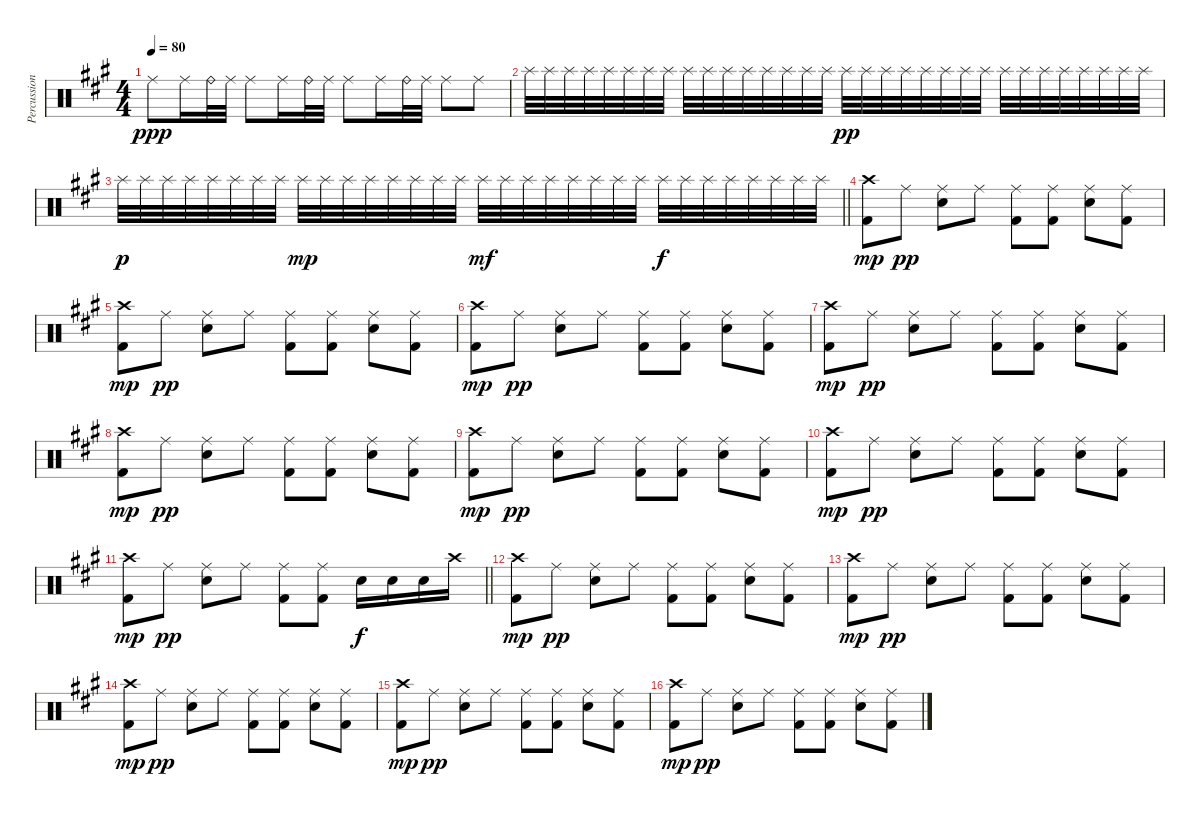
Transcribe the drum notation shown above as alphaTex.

\track ("Percussion" "Percussion") {instrument percussion}
\staff {score}
\articulation defaults
\ts (4 4)
\tempo 80
\clef neutral
\ks a "Ride (middle)".8{dy ppp} "Ride (middle)".16 "Ride (bell)".32 "Ride (middle)".32 "Ride (middle)".8 "Ride (middle)".16 "Ride (bell)".32 "Ride (middle)".32 "Ride (middle)".8 "Ride (middle)".16 "Ride (bell)".32 "Ride (middle)".32 "Ride (middle)".8 "Ride (middle)".8
|
"Splash (hit)".32 "Splash (hit)".32 "Splash (hit)".32 "Splash (hit)".32 "Splash (hit)".32 "Splash (hit)".32 "Splash (hit)".32 "Splash (hit)".32 "Splash (hit)".32 "Splash (hit)".32 "Splash (hit)".32 "Splash (hit)".32 "Splash (hit)".32 "Splash (hit)".32 "Splash (hit)".32 "Splash (hit)".32 "Splash (hit)".32{dy pp} "Splash (hit)".32 "Splash (hit)".32 "Splash (hit)".32 "Splash (hit)".32 "Splash (hit)".32 "Splash (hit)".32 "Splash (hit)".32 "Splash (hit)".32 "Splash (hit)".32 "Splash (hit)".32 "Splash (hit)".32 "Splash (hit)".32 "Splash (hit)".32 "Splash (hit)".32 "Splash (hit)".32 |
\barLineRight lightlight "Splash (hit)".32{dy p} "Splash (hit)".32 "Splash (hit)".32 "Splash (hit)".32 "Splash (hit)".32 "Splash (hit)".32 "Splash (hit)".32 "Splash (hit)".32 "Splash (hit)".32{dy mp} "Splash (hit)".32 "Splash (hit)".32 "Splash (hit)".32 "Splash (hit)".32 "Splash (hit)".32 "Splash (hit)".32 "Splash (hit)".32 "Splash (hit)".32{dy mf} "Splash (hit)".32 "Splash (hit)".32 "Splash (hit)".32 "Splash (hit)".32 "Splash (hit)".32 "Splash (hit)".32 "Splash (hit)".32 "Splash (hit)".32{dy f} "Splash (hit)".32 "Splash (hit)".32 "Splash (hit)".32 "Splash (hit)".32 "Splash (hit)".32 "Splash (hit)".32 "Splash (hit)".32
|
("Crash high (hit)" "Kick (hit) 2").8{dy mp} "Ride (middle)".8{dy pp} ("Ride (middle)" "Electric Snare (hit)").8 "Ride (middle)".8 ("Ride (middle)" "Kick (hit) 2").8 ("Ride (middle)" "Kick (hit) 2").8 ("Ride (middle)" "Electric Snare (hit)").8 ("Ride (middle)" "Kick (hit) 2").8 |
("Crash high (hit)" "Kick (hit) 2").8{dy mp} "Ride (middle)".8{dy pp} ("Ride (middle)" "Electric Snare (hit)").8 "Ride (middle)".8 ("Ride (middle)" "Kick (hit) 2").8 ("Ride (middle)" "Kick (hit) 2").8 ("Ride (middle)" "Electric Snare (hit)").8 ("Ride (middle)" "Kick (hit) 2").8 |
("Crash high (hit)" "Kick (hit) 2").8{dy mp} "Ride (middle)".8{dy pp} ("Ride (middle)" "Electric Snare (hit)").8 "Ride (middle)".8 ("Ride (middle)" "Kick (hit) 2").8 ("Ride (middle)" "Kick (hit) 2").8 ("Ride (middle)" "Electric Snare (hit)").8 ("Ride (middle)" "Kick (hit) 2").8 |
("Crash high (hit)" "Kick (hit) 2").8{dy mp} "Ride (middle)".8{dy pp} ("Ride (middle)" "Electric Snare (hit)").8 "Ride (middle)".8 ("Ride (middle)" "Kick (hit) 2").8 ("Ride (middle)" "Kick (hit) 2").8 ("Ride (middle)" "Electric Snare (hit)").8 ("Ride (middle)" "Kick (hit) 2").8 |
("Crash high (hit)" "Kick (hit) 2").8{dy mp} "Ride (middle)".8{dy pp} ("Ride (middle)" "Electric Snare (hit)").8 "Ride (middle)".8 ("Ride (middle)" "Kick (hit) 2").8 ("Ride (middle)" "Kick (hit) 2").8 ("Ride (middle)" "Electric Snare (hit)").8 ("Ride (middle)" "Kick (hit) 2").8 |
("Crash high (hit)" "Kick (hit) 2").8{dy mp} "Ride (middle)".8{dy pp} ("Ride (middle)" "Electric Snare (hit)").8 "Ride (middle)".8 ("Ride (middle)" "Kick (hit) 2").8 ("Ride (middle)" "Kick (hit) 2").8 ("Ride (middle)" "Electric Snare (hit)").8 ("Ride (middle)" "Kick (hit) 2").8 |
("Crash high (hit)" "Kick (hit) 2").8{dy mp} "Ride (middle)".8{dy pp} ("Ride (middle)" "Electric Snare (hit)").8 "Ride (middle)".8 ("Ride (middle)" "Kick (hit) 2").8 ("Ride (middle)" "Kick (hit) 2").8 ("Ride (middle)" "Electric Snare (hit)").8 ("Ride (middle)" "Kick (hit) 2").8 |
\barLineRight lightlight
("Crash high (hit)" "Kick (hit) 2").8{dy mp} "Ride (middle)".8{dy pp} ("Ride (middle)" "Electric Snare (hit)").8 "Ride (middle)".8 ("Ride (middle)" "Kick (hit) 2").8 ("Ride (middle)" "Kick (hit) 2").8 "Electric Snare (hit)".16{dy f} "Electric Snare (hit)".16 "Electric Snare (hit)".16 "Crash high (hit)".16 |
("Crash high (hit)" "Kick (hit) 2").8{dy mp} "Ride (middle)".8{dy pp} ("Ride (middle)" "Electric Snare (hit)").8 "Ride (middle)".8 ("Ride (middle)" "Kick (hit) 2").8 ("Ride (middle)" "Kick (hit) 2").8 ("Ride (middle)" "Electric Snare (hit)").8 ("Ride (middle)" "Kick (hit) 2").8 |
("Crash high (hit)" "Kick (hit) 2").8{dy mp} "Ride (middle)".8{dy pp} ("Ride (middle)" "Electric Snare (hit)").8 "Ride (middle)".8 ("Ride (middle)" "Kick (hit) 2").8 ("Ride (middle)" "Kick (hit) 2").8 ("Ride (middle)" "Electric Snare (hit)").8 ("Ride (middle)" "Kick (hit) 2").8 |
("Crash high (hit)" "Kick (hit) 2").8{dy mp} "Ride (middle)".8{dy pp} ("Ride (middle)" "Electric Snare (hit)").8 "Ride (middle)".8 ("Ride (middle)" "Kick (hit) 2").8 ("Ride (middle)" "Kick (hit) 2").8 ("Ride (middle)" "Electric Snare (hit)").8 ("Ride (middle)" "Kick (hit) 2").8 |
("Crash high (hit)" "Kick (hit) 2").8{dy mp} "Ride (middle)".8{dy pp} ("Ride (middle)" "Electric Snare (hit)").8 "Ride (middle)".8 ("Ride (middle)" "Kick (hit) 2").8 ("Ride (middle)" "Kick (hit) 2").8 ("Ride (middle)" "Electric Snare (hit)").8 ("Ride (middle)" "Kick (hit) 2").8 |
("Crash high (hit)" "Kick (hit) 2").8{dy mp} "Ride (middle)".8{dy pp} ("Ride (middle)" "Electric Snare (hit)").8 "Ride (middle)".8 ("Ride (middle)" "Kick (hit) 2").8 ("Ride (middle)" "Kick (hit) 2").8 ("Ride (middle)" "Electric Snare (hit)").8 ("Ride (middle)" "Kick (hit) 2").8
